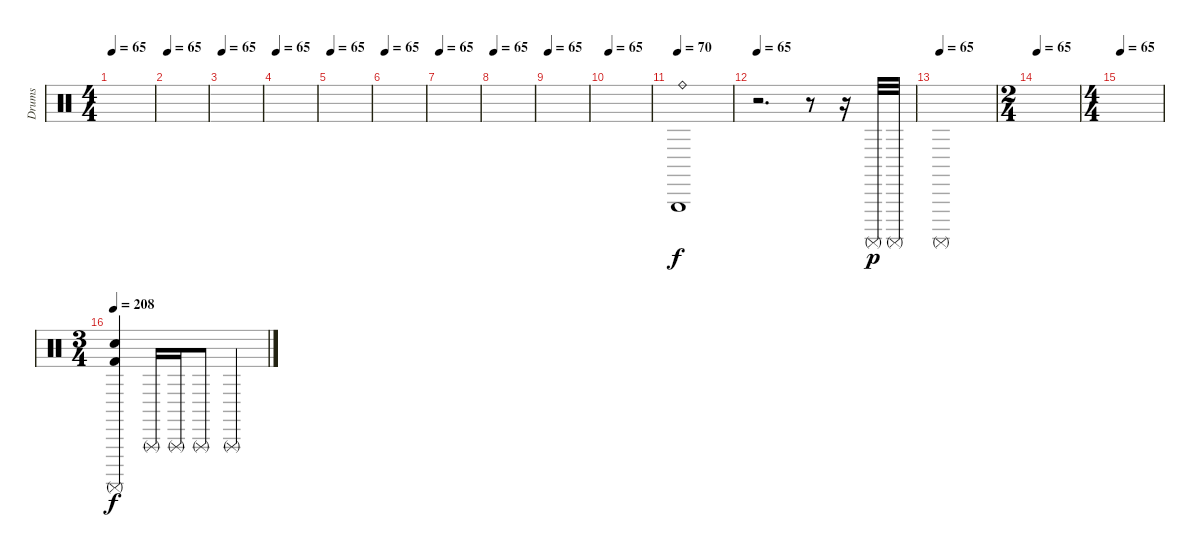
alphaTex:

\track ("Drums" "Drums") {instrument percussion}
\staff {score}
\articulation defaults
\ts (4 4)
\tempo 65
\clef neutral
\ks c
|
\tempo 65
|
\tempo 65
|
\tempo 65
|
\tempo 65
|
\tempo 65
|
\tempo 65
|
\tempo 65
|
\tempo 65
|
\tempo 65
|
\tempo 65
\tempo 70
("Ride (bell)" "Triangle (hit)").1 |
\tempo 65
r.2{d} r.8 r.16 "Surdo (mute)".32{dy p} "Surdo (mute)".32 |
\tempo (65)
"Surdo (mute)".1 |
\ts (2 4)
\tempo 65
|
\ts (4 4)
\tempo 65
|
\ts (3 4)
\tempo 208
("Surdo (mute)" "Electric Snare (hit)" "Kick (hit) 2").4{dy f} "Triangle (rnute)".16 "Triangle (rnute)".16 "Triangle (rnute)".8 "Triangle (rnute)".4
